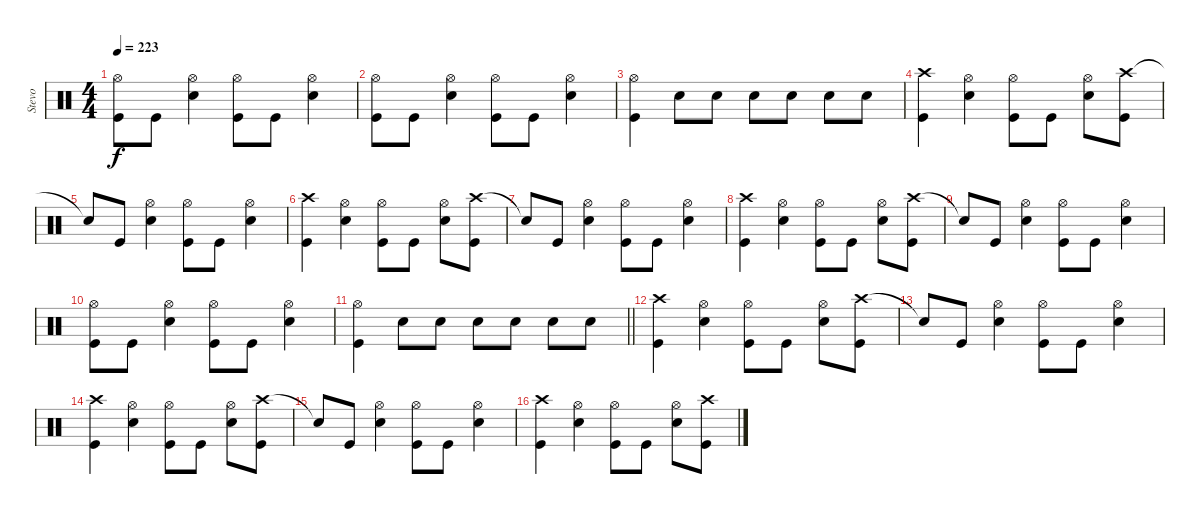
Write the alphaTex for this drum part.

\track ("Stevo" "Stevo") {instrument percussion}
\staff {score}
\articulation defaults
\ts (4 4)
\tempo 223
\clef neutral
\ks c
("Kick (hit)" "Hi-Hat (open)").8{dy f} "Kick (hit)".8 ("Electric Snare (hit)" "Hi-Hat (open)").4 ("Kick (hit)" "Hi-Hat (open)").8 "Kick (hit)".8 ("Electric Snare (hit)" "Hi-Hat (open)").4 |
("Kick (hit)" "Hi-Hat (open)").8 "Kick (hit)".8 ("Electric Snare (hit)" "Hi-Hat (open)").4 ("Kick (hit)" "Hi-Hat (open)").8 "Kick (hit)".8 ("Electric Snare (hit)" "Hi-Hat (open)").4 |
("Kick (hit)" "Hi-Hat (open)").4 "Electric Snare (hit)".8 "Electric Snare (hit)".8 "Electric Snare (hit)".8 "Electric Snare (hit)".8 "Electric Snare (hit)".8 "Electric Snare (hit)".8 |
("Crash high (hit)" "Kick (hit)").4 ("Hi-Hat (open)" "Electric Snare (hit)").4 ("Hi-Hat (open)" "Kick (hit)").8 "Kick (hit)".8 ("Hi-Hat (open)" "Electric Snare (hit)").8 ("Crash high (hit)" "Kick (hit)").8 |
"Snare (hit)"{t}.8 "Kick (hit)".8 ("Hi-Hat (open)" "Electric Snare (hit)").4 ("Hi-Hat (open)" "Kick (hit)").8 "Kick (hit)".8 ("Hi-Hat (open)" "Electric Snare (hit)").4 |
("Crash high (hit)" "Kick (hit)").4 ("Hi-Hat (open)" "Electric Snare (hit)").4 ("Hi-Hat (open)" "Kick (hit)").8 "Kick (hit)".8 ("Hi-Hat (open)" "Electric Snare (hit)").8 ("Crash high (hit)" "Kick (hit)").8 |
"Snare (hit)"{t}.8 "Kick (hit)".8 ("Hi-Hat (open)" "Electric Snare (hit)").4 ("Hi-Hat (open)" "Kick (hit)").8 "Kick (hit)".8 ("Hi-Hat (open)" "Electric Snare (hit)").4 |
("Crash high (hit)" "Kick (hit)").4 ("Hi-Hat (open)" "Electric Snare (hit)").4 ("Hi-Hat (open)" "Kick (hit)").8 "Kick (hit)".8 ("Hi-Hat (open)" "Electric Snare (hit)").8 ("Crash high (hit)" "Kick (hit)").8 |
"Snare (hit)"{t}.8 "Kick (hit)".8 ("Hi-Hat (open)" "Electric Snare (hit)").4 ("Hi-Hat (open)" "Kick (hit)").8 "Kick (hit)".8 ("Hi-Hat (open)" "Electric Snare (hit)").4 |
("Kick (hit)" "Hi-Hat (open)").8 "Kick (hit)".8 ("Electric Snare (hit)" "Hi-Hat (open)").4 ("Kick (hit)" "Hi-Hat (open)").8 "Kick (hit)".8 ("Electric Snare (hit)" "Hi-Hat (open)").4 |
\barLineRight lightlight
("Kick (hit)" "Hi-Hat (open)").4 "Electric Snare (hit)".8 "Electric Snare (hit)".8 "Electric Snare (hit)".8 "Electric Snare (hit)".8 "Electric Snare (hit)".8 "Electric Snare (hit)".8 |
("Crash high (hit)" "Kick (hit)").4 ("Hi-Hat (open)" "Electric Snare (hit)").4 ("Hi-Hat (open)" "Kick (hit)").8 "Kick (hit)".8 ("Hi-Hat (open)" "Electric Snare (hit)").8 ("Crash high (hit)" "Kick (hit)").8 |
"Snare (hit)"{t}.8 "Kick (hit)".8 ("Hi-Hat (open)" "Electric Snare (hit)").4 ("Hi-Hat (open)" "Kick (hit)").8 "Kick (hit)".8 ("Hi-Hat (open)" "Electric Snare (hit)").4 |
("Crash high (hit)" "Kick (hit)").4 ("Hi-Hat (open)" "Electric Snare (hit)").4 ("Hi-Hat (open)" "Kick (hit)").8 "Kick (hit)".8 ("Hi-Hat (open)" "Electric Snare (hit)").8 ("Crash high (hit)" "Kick (hit)").8 |
"Snare (hit)"{t}.8 "Kick (hit)".8 ("Hi-Hat (open)" "Electric Snare (hit)").4 ("Hi-Hat (open)" "Kick (hit)").8 "Kick (hit)".8 ("Hi-Hat (open)" "Electric Snare (hit)").4 |
("Crash high (hit)" "Kick (hit)").4 ("Hi-Hat (open)" "Electric Snare (hit)").4 ("Hi-Hat (open)" "Kick (hit)").8 "Kick (hit)".8 ("Hi-Hat (open)" "Electric Snare (hit)").8 ("Crash high (hit)" "Kick (hit)").8
